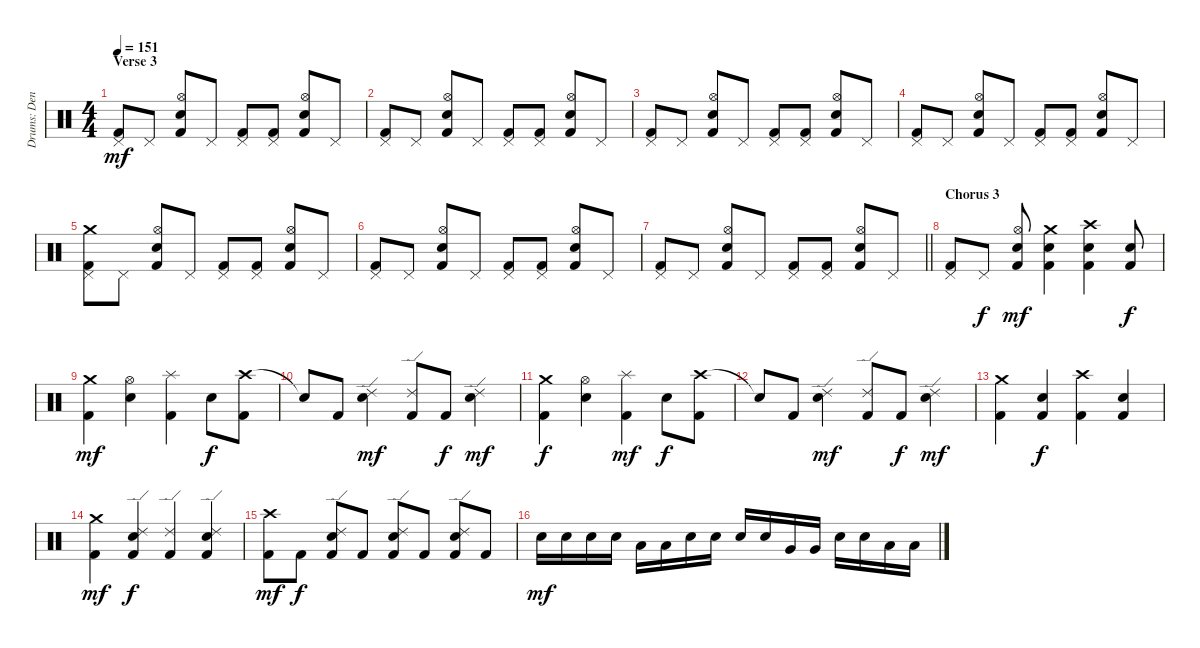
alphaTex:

\track ("Drums: Denny Carmassi" "Drums: Den") {instrument percussion}
\staff {score}
\articulation defaults
\ts (4 4)
\section ("" "Verse 3")
\tempo 151
\clef neutral
\ks c
("Pedal Hi-Hat (hit)" "Kick (hit) 2").8{dy mf} "Pedal Hi-Hat (hit)".8 ("Hi-Hat (open)" "Snare (hit) 2" "Kick (hit) 2").8 "Pedal Hi-Hat (hit)".8 ("Pedal Hi-Hat (hit)" "Kick (hit) 2").8 ("Pedal Hi-Hat (hit)" "Kick (hit) 2").8 ("Hi-Hat (open)" "Snare (hit) 2" "Kick (hit) 2").8 "Pedal Hi-Hat (hit)".8 |
("Pedal Hi-Hat (hit)" "Kick (hit) 2").8 "Pedal Hi-Hat (hit)".8 ("Hi-Hat (open)" "Snare (hit) 2" "Kick (hit) 2").8 "Pedal Hi-Hat (hit)".8 ("Pedal Hi-Hat (hit)" "Kick (hit) 2").8 ("Pedal Hi-Hat (hit)" "Kick (hit) 2").8 ("Hi-Hat (open)" "Snare (hit) 2" "Kick (hit) 2").8 "Pedal Hi-Hat (hit)".8 |
("Pedal Hi-Hat (hit)" "Kick (hit) 2").8 "Pedal Hi-Hat (hit)".8 ("Hi-Hat (open)" "Snare (hit) 2" "Kick (hit) 2").8 "Pedal Hi-Hat (hit)".8 ("Pedal Hi-Hat (hit)" "Kick (hit) 2").8 ("Pedal Hi-Hat (hit)" "Kick (hit) 2").8 ("Hi-Hat (open)" "Snare (hit) 2" "Kick (hit) 2").8 "Pedal Hi-Hat (hit)".8 |
("Pedal Hi-Hat (hit)" "Kick (hit) 2").8 "Pedal Hi-Hat (hit)".8 ("Hi-Hat (open)" "Snare (hit) 2" "Kick (hit) 2").8 "Pedal Hi-Hat (hit)".8 ("Pedal Hi-Hat (hit)" "Kick (hit) 2").8 ("Pedal Hi-Hat (hit)" "Kick (hit) 2").8 ("Hi-Hat (open)" "Snare (hit) 2" "Kick (hit) 2").8 "Pedal Hi-Hat (hit)".8 |
("Crash medium (hit)" "Pedal Hi-Hat (hit)" "Kick (hit) 2").8 "Pedal Hi-Hat (hit)".8 ("Hi-Hat (open)" "Snare (hit) 2" "Kick (hit) 2").8 "Pedal Hi-Hat (hit)".8 ("Pedal Hi-Hat (hit)" "Kick (hit) 2").8 ("Pedal Hi-Hat (hit)" "Kick (hit) 2").8 ("Hi-Hat (open)" "Snare (hit) 2" "Kick (hit) 2").8 "Pedal Hi-Hat (hit)".8 |
("Pedal Hi-Hat (hit)" "Kick (hit) 2").8 "Pedal Hi-Hat (hit)".8 ("Hi-Hat (open)" "Snare (hit) 2" "Kick (hit) 2").8 "Pedal Hi-Hat (hit)".8 ("Pedal Hi-Hat (hit)" "Kick (hit) 2").8 ("Pedal Hi-Hat (hit)" "Kick (hit) 2").8 ("Hi-Hat (open)" "Snare (hit) 2" "Kick (hit) 2").8 "Pedal Hi-Hat (hit)".8 |
\barLineRight lightlight
("Pedal Hi-Hat (hit)" "Kick (hit) 2").8 "Pedal Hi-Hat (hit)".8 ("Hi-Hat (open)" "Snare (hit) 2" "Kick (hit) 2").8 "Pedal Hi-Hat (hit)".8 ("Pedal Hi-Hat (hit)" "Kick (hit) 2").8 ("Pedal Hi-Hat (hit)" "Kick (hit) 2").8 ("Hi-Hat (open)" "Snare (hit) 2" "Kick (hit) 2").8 "Pedal Hi-Hat (hit)".8 |
\section ("" "Chorus 3")
("Pedal Hi-Hat (hit)" "Kick (hit) 2").8 "Pedal Hi-Hat (hit)".8{dy f} ("Hi-Hat (open)" "Snare (hit) 2" "Kick (hit) 2").8{dy mf} ("Crash medium (hit)" "Snare (hit) 2" "Kick (hit) 2").4 ("Crash high (hit)" "Snare (hit) 2" "Kick (hit) 2").4 ("Snare (hit) 2" "Kick (hit) 2").8{dy f} |
("Crash medium (hit)" "Kick (hit) 2").4{dy mf} ("Hi-Hat (open)" "Snare (hit) 2").4 ("Splash (hit)" "Kick (hit) 2").4 "Snare (hit) 2".8{dy f} ("Crash high (hit)" "Kick (hit) 2").8 |
"Snare (hit)"{t}.8 "Kick (hit) 2".8 ("Ride (edge) 2" "Snare (hit) 2").4{dy mf} ("Ride (edge) 2" "Kick (hit) 2").8 "Kick (hit) 2".8{dy f} ("Ride (edge) 2" "Snare (hit) 2").4{dy mf} |
("Crash medium (hit)" "Kick (hit) 2").4{dy f} ("Hi-Hat (open)" "Snare (hit) 2").4 ("Splash (hit)" "Kick (hit) 2").4{dy mf} "Snare (hit) 2".8{dy f} ("Crash high (hit)" "Kick (hit) 2").8 |
"Snare (hit)"{t}.8 "Kick (hit) 2".8 ("Ride (edge) 2" "Snare (hit) 2").4{dy mf} ("Ride (edge) 2" "Kick (hit) 2").8 "Kick (hit) 2".8{dy f} ("Ride (edge) 2" "Snare (hit) 2").4{dy mf} |
("Crash medium (hit)" "Kick (hit) 2").4 ("Snare (hit) 2" "Kick (hit) 2").4{dy f} ("Crash high (hit)" "Kick (hit) 2").4 ("Snare (hit) 2" "Kick (hit) 2").4 |
("Crash medium (hit)" "Kick (hit) 2").4{dy mf} ("Ride (edge) 2" "Snare (hit) 2" "Kick (hit) 2").4{dy f} ("Ride (edge) 2" "Kick (hit) 2").4 ("Ride (edge) 2" "Snare (hit) 2" "Kick (hit) 2").4 |
("Crash high (hit)" "Kick (hit) 2").8{dy mf} "Kick (hit) 2".8{dy f} ("Ride (edge) 2" "Snare (hit) 2" "Kick (hit) 2").8 "Kick (hit) 2".8 ("Ride (edge) 2" "Snare (hit) 2" "Kick (hit) 2").8 "Kick (hit) 2".8 ("Ride (edge) 2" "Snare (hit) 2" "Kick (hit) 2").8 "Kick (hit) 2".8 |
"Snare (hit) 2".16{dy mf} "Snare (hit) 2".16 "Snare (hit) 2".16 "Snare (hit) 2".16 "Low Tom (hit)".16 "Low Tom (hit)".16 "Snare (hit) 2".16 "Snare (hit) 2".16 "Snare (hit) 2".16 "Snare (hit) 2".16 "Very Low Tom (hit)".16 "Very Low Tom (hit)".16 "Snare (hit) 2".16 "Snare (hit) 2".16 "Low Floor Tom (hit)".16 "Low Floor Tom (hit)".16
